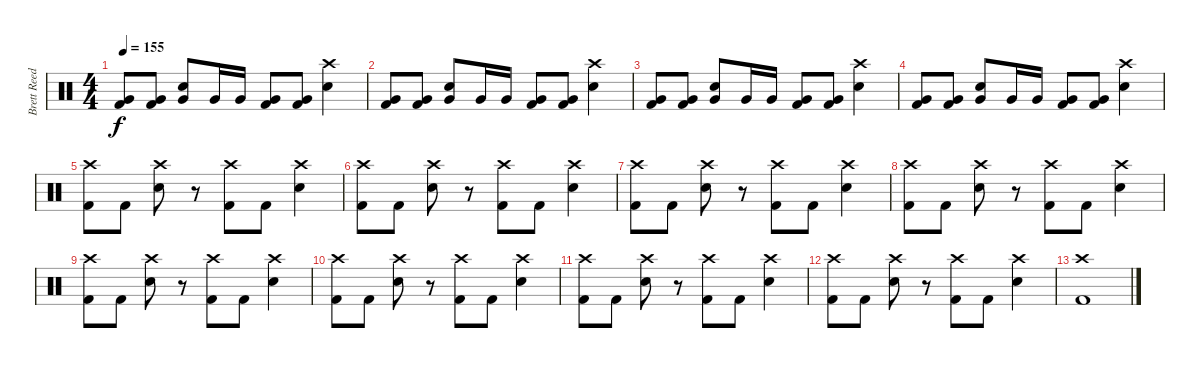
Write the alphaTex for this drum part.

\track ("Brett Reed" "Brett Reed") {instrument percussion}
\staff {score}
\articulation defaults
\ts (4 4)
\tempo 155
\clef neutral
\ks c
("Very Low Tom (hit)" "Kick (hit) 2").8{dy f} ("Very Low Tom (hit)" "Kick (hit) 2").8 ("Very Low Tom (hit)" "Electric Snare (hit)").8 "Very Low Tom (hit)".16 "Very Low Tom (hit)".16 ("Very Low Tom (hit)" "Kick (hit) 2").8 ("Very Low Tom (hit)" "Kick (hit) 2").8 ("Crash high (hit)" "Electric Snare (hit)").4 |
("Very Low Tom (hit)" "Kick (hit) 2").8 ("Very Low Tom (hit)" "Kick (hit) 2").8 ("Very Low Tom (hit)" "Electric Snare (hit)").8 "Very Low Tom (hit)".16 "Very Low Tom (hit)".16 ("Very Low Tom (hit)" "Kick (hit) 2").8 ("Very Low Tom (hit)" "Kick (hit) 2").8 ("Crash high (hit)" "Electric Snare (hit)").4 |
("Very Low Tom (hit)" "Kick (hit) 2").8 ("Very Low Tom (hit)" "Kick (hit) 2").8 ("Very Low Tom (hit)" "Electric Snare (hit)").8 "Very Low Tom (hit)".16 "Very Low Tom (hit)".16 ("Very Low Tom (hit)" "Kick (hit) 2").8 ("Very Low Tom (hit)" "Kick (hit) 2").8 ("Crash high (hit)" "Electric Snare (hit)").4 |
("Very Low Tom (hit)" "Kick (hit) 2").8 ("Very Low Tom (hit)" "Kick (hit) 2").8 ("Very Low Tom (hit)" "Electric Snare (hit)").8 "Very Low Tom (hit)".16 "Very Low Tom (hit)".16 ("Very Low Tom (hit)" "Kick (hit) 2").8 ("Very Low Tom (hit)" "Kick (hit) 2").8 ("Crash high (hit)" "Electric Snare (hit)").4 |
("Crash high (hit)" "Kick (hit) 2").8 "Kick (hit) 2".8 ("Crash high (hit)" "Electric Snare (hit)").8 r.8 ("Crash high (hit)" "Kick (hit) 2").8 "Kick (hit) 2".8 ("Crash high (hit)" "Electric Snare (hit)").4 |
("Crash high (hit)" "Kick (hit) 2").8 "Kick (hit) 2".8 ("Crash high (hit)" "Electric Snare (hit)").8 r.8 ("Crash high (hit)" "Kick (hit) 2").8 "Kick (hit) 2".8 ("Crash high (hit)" "Electric Snare (hit)").4 |
("Crash high (hit)" "Kick (hit) 2").8 "Kick (hit) 2".8 ("Crash high (hit)" "Electric Snare (hit)").8 r.8 ("Crash high (hit)" "Kick (hit) 2").8 "Kick (hit) 2".8 ("Crash high (hit)" "Electric Snare (hit)").4 |
("Crash high (hit)" "Kick (hit) 2").8 "Kick (hit) 2".8 ("Crash high (hit)" "Electric Snare (hit)").8 r.8 ("Crash high (hit)" "Kick (hit) 2").8 "Kick (hit) 2".8 ("Crash high (hit)" "Electric Snare (hit)").4 |
("Crash high (hit)" "Kick (hit) 2").8 "Kick (hit) 2".8 ("Crash high (hit)" "Electric Snare (hit)").8 r.8 ("Crash high (hit)" "Kick (hit) 2").8 "Kick (hit) 2".8 ("Crash high (hit)" "Electric Snare (hit)").4 |
("Crash high (hit)" "Kick (hit) 2").8 "Kick (hit) 2".8 ("Crash high (hit)" "Electric Snare (hit)").8 r.8 ("Crash high (hit)" "Kick (hit) 2").8 "Kick (hit) 2".8 ("Crash high (hit)" "Electric Snare (hit)").4 |
("Crash high (hit)" "Kick (hit) 2").8 "Kick (hit) 2".8 ("Crash high (hit)" "Electric Snare (hit)").8 r.8 ("Crash high (hit)" "Kick (hit) 2").8 "Kick (hit) 2".8 ("Crash high (hit)" "Electric Snare (hit)").4 |
("Crash high (hit)" "Kick (hit) 2").8 "Kick (hit) 2".8 ("Crash high (hit)" "Electric Snare (hit)").8 r.8 ("Crash high (hit)" "Kick (hit) 2").8 "Kick (hit) 2".8 ("Crash high (hit)" "Electric Snare (hit)").4 |
("Crash high (hit)" "Kick (hit) 2").1
